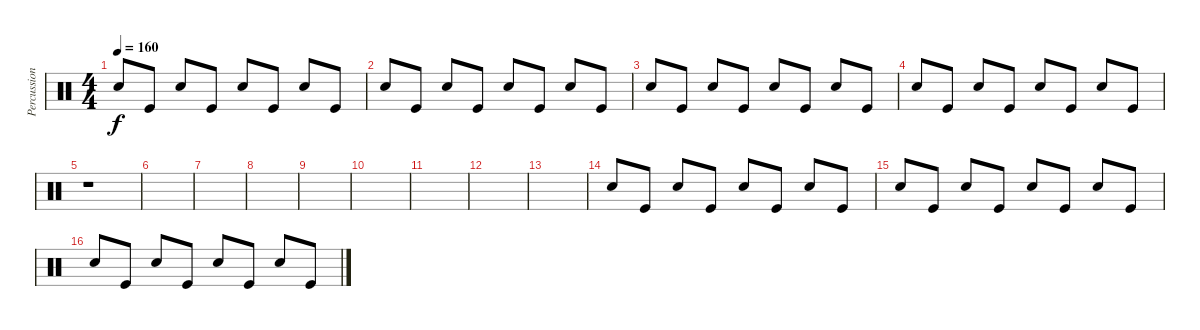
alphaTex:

\track ("Percussions" "Percussion") {instrument percussion}
\staff {score}
\articulation defaults
\ts (4 4)
\tempo 160
\clef neutral
\ks c "Snare (hit) 2".8{dy f} "Kick (hit)".8 "Snare (hit) 2".8 "Kick (hit)".8 "Snare (hit) 2".8 "Kick (hit)".8 "Snare (hit) 2".8 "Kick (hit)".8
|
"Snare (hit) 2".8 "Kick (hit)".8 "Snare (hit) 2".8 "Kick (hit)".8 "Snare (hit) 2".8 "Kick (hit)".8 "Snare (hit) 2".8 "Kick (hit)".8 |
"Snare (hit) 2".8 "Kick (hit)".8 "Snare (hit) 2".8 "Kick (hit)".8 "Snare (hit) 2".8 "Kick (hit)".8 "Snare (hit) 2".8 "Kick (hit)".8 |
"Snare (hit) 2".8 "Kick (hit)".8 "Snare (hit) 2".8 "Kick (hit)".8 "Snare (hit) 2".8 "Kick (hit)".8 "Snare (hit) 2".8 "Kick (hit)".8 |
r.1 |
|
|
|
|
|
|
|
|
"Snare (hit) 2".8 "Kick (hit)".8 "Snare (hit) 2".8 "Kick (hit)".8 "Snare (hit) 2".8 "Kick (hit)".8 "Snare (hit) 2".8 "Kick (hit)".8 |
"Snare (hit) 2".8 "Kick (hit)".8 "Snare (hit) 2".8 "Kick (hit)".8 "Snare (hit) 2".8 "Kick (hit)".8 "Snare (hit) 2".8 "Kick (hit)".8 |
"Snare (hit) 2".8 "Kick (hit)".8 "Snare (hit) 2".8 "Kick (hit)".8 "Snare (hit) 2".8 "Kick (hit)".8 "Snare (hit) 2".8 "Kick (hit)".8
